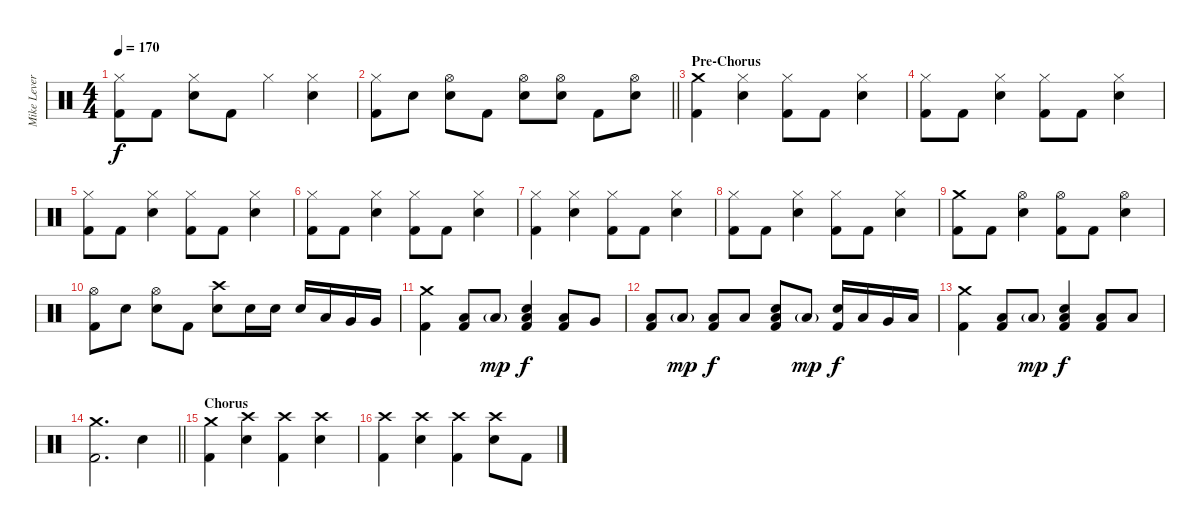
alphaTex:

\track ("Mike Leverence - Drums" "Mike Lever") {instrument percussion}
\staff {score}
\articulation defaults
\ts (4 4)
\tempo 170
\clef neutral
\ks c
("Hi-Hat (closed)" "Kick (hit) 2").8{dy f} "Kick (hit) 2".8 ("Hi-Hat (closed)" "Electric Snare (hit)").8 "Kick (hit) 2".8 "Hi-Hat (closed)".4 ("Hi-Hat (closed)" "Electric Snare (hit)").4 |
\barLineRight lightlight
("Hi-Hat (closed)" "Kick (hit) 2").8 "Electric Snare (hit)".8 ("Hi-Hat (open)" "Electric Snare (hit)").8 "Kick (hit) 2".8 ("Hi-Hat (open)" "Electric Snare (hit)").8 ("Hi-Hat (open)" "Electric Snare (hit)").8 "Kick (hit) 2".8 ("Hi-Hat (open)" "Electric Snare (hit)").8 |
\section ("" "Pre-Chorus")
("Crash medium (hit)" "Kick (hit) 2").4 ("Hi-Hat (closed)" "Electric Snare (hit)").4 ("Hi-Hat (closed)" "Kick (hit) 2").8 "Kick (hit) 2".8 ("Hi-Hat (closed)" "Electric Snare (hit)").4 |
("Hi-Hat (closed)" "Kick (hit) 2").8 "Kick (hit) 2".8 ("Hi-Hat (closed)" "Electric Snare (hit)").4 ("Hi-Hat (closed)" "Kick (hit) 2").8 "Kick (hit) 2".8 ("Hi-Hat (closed)" "Electric Snare (hit)").4 |
("Hi-Hat (closed)" "Kick (hit) 2").8 "Kick (hit) 2".8 ("Hi-Hat (closed)" "Electric Snare (hit)").4 ("Hi-Hat (closed)" "Kick (hit) 2").8 "Kick (hit) 2".8 ("Hi-Hat (closed)" "Electric Snare (hit)").4 |
("Hi-Hat (closed)" "Kick (hit) 2").8 "Kick (hit) 2".8 ("Hi-Hat (closed)" "Electric Snare (hit)").4 ("Hi-Hat (closed)" "Kick (hit) 2").8 "Kick (hit) 2".8 ("Hi-Hat (closed)" "Electric Snare (hit)").4 |
("Hi-Hat (closed)" "Kick (hit) 2").4 ("Hi-Hat (closed)" "Electric Snare (hit)").4 ("Hi-Hat (closed)" "Kick (hit) 2").8 "Kick (hit) 2".8 ("Hi-Hat (closed)" "Electric Snare (hit)").4 |
("Hi-Hat (closed)" "Kick (hit) 2").8 "Kick (hit) 2".8 ("Hi-Hat (closed)" "Electric Snare (hit)").4 ("Hi-Hat (closed)" "Kick (hit) 2").8 "Kick (hit) 2".8 ("Hi-Hat (closed)" "Electric Snare (hit)").4 |
("Crash medium (hit)" "Kick (hit) 2").8 "Kick (hit) 2".8 ("Hi-Hat (open)" "Electric Snare (hit)").4 ("Hi-Hat (open)" "Kick (hit) 2").8 "Kick (hit) 2".8 ("Hi-Hat (open)" "Electric Snare (hit)").4 |
("Hi-Hat (open)" "Kick (hit) 2").8 "Electric Snare (hit)".8 ("Hi-Hat (open)" "Electric Snare (hit)").8 "Kick (hit) 2".8 ("Crash high (hit)" "Electric Snare (hit)").8 "Electric Snare (hit)".16 "Electric Snare (hit)".16 "Electric Snare (hit)".16 "Low Tom (hit)".16 "Very Low Tom (hit)".16 "Very Low Tom (hit)".16 |
("Crash medium (hit)" "Kick (hit) 2").4 ("Low Floor Tom (hit)" "Kick (hit) 2").8 "Low Floor Tom (hit)"{g}.8{dy mp} ("Electric Snare (hit)" "Low Floor Tom (hit)" "Kick (hit) 2").4{dy f} ("Low Floor Tom (hit)" "Kick (hit) 2").8 "Very Low Tom (hit)".8 |
("Low Floor Tom (hit)" "Kick (hit) 2").8 "Low Floor Tom (hit)"{g}.8{dy mp} ("Low Floor Tom (hit)" "Kick (hit) 2").8{dy f} "Low Tom (hit)".8 ("Electric Snare (hit)" "Low Floor Tom (hit)" "Kick (hit) 2").8 "Low Floor Tom (hit)"{g}.8{dy mp} ("Electric Snare (hit)" "Kick (hit) 2").16{dy f} "Low Tom (hit)".16 "Very Low Tom (hit)".16 "Low Floor Tom (hit)".16 |
("Crash medium (hit)" "Kick (hit) 2").4 ("Low Floor Tom (hit)" "Kick (hit) 2").8 "Low Floor Tom (hit)"{g}.8{dy mp} ("Electric Snare (hit)" "Low Floor Tom (hit)" "Kick (hit) 2").4{dy f} ("Low Tom (hit)" "Kick (hit) 2").8 "Low Tom (hit)".8 |
\barLineRight lightlight
("Crash medium (hit)" "Kick (hit) 2").2{d} "Electric Snare (hit)".4 |
\section ("" "Chorus")
("Crash medium (hit)" "Kick (hit) 2").4 ("Crash high (hit)" "Electric Snare (hit)").4 ("Crash high (hit)" "Kick (hit) 2").4 ("Crash high (hit)" "Electric Snare (hit)").4 |
("Crash high (hit)" "Kick (hit) 2").4 ("Crash high (hit)" "Electric Snare (hit)").4 ("Crash high (hit)" "Kick (hit) 2").4 ("Crash high (hit)" "Electric Snare (hit)").8 "Kick (hit) 2".8
